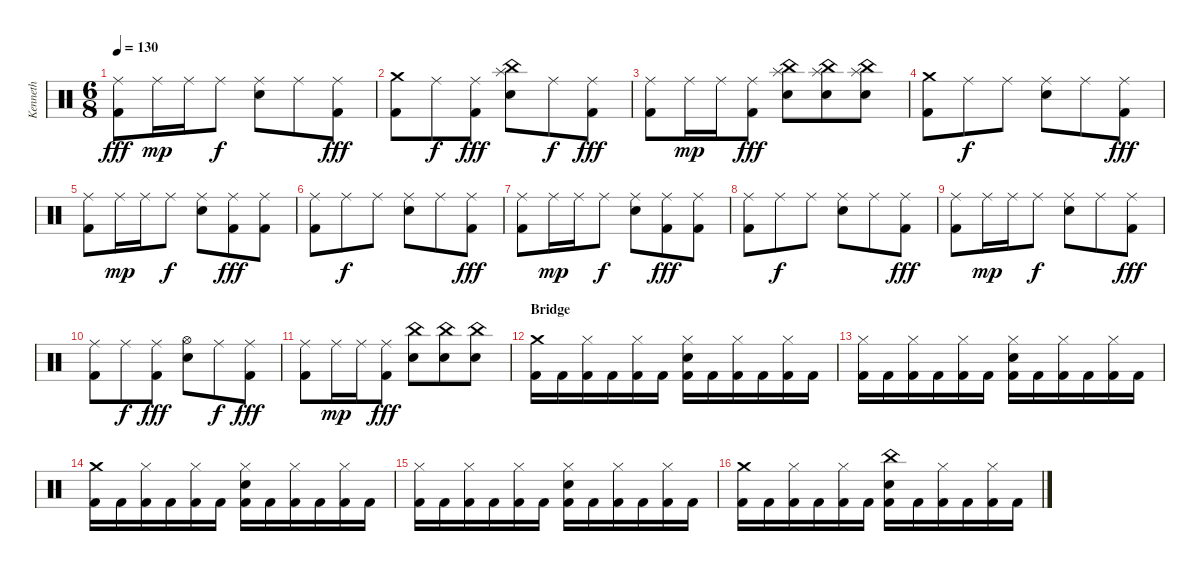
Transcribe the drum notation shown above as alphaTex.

\track ("Kenneth" "Kenneth") {instrument percussion}
\staff {score}
\articulation defaults
\ts (6 8)
\tempo 130
\clef neutral
\ks c
("Ride (middle)" "Kick (hit) 2").8{dy fff} "Ride (middle)".16{dy mp} "Ride (middle)".16 "Ride (middle)".8{dy f} ("Ride (middle)" "Electric Snare (hit)").8 "Ride (middle)".8 ("Ride (middle)" "Kick (hit) 2").8{dy fff} |
("Crash medium (hit)" "Kick (hit) 2").8 "Ride (middle)".8{dy f} ("Ride (middle)" "Kick (hit) 2").8{dy fff} ("China (hit)" "Splash (hit)" "Electric Snare (hit)").8 "Ride (middle)".8{dy f} ("Ride (middle)" "Kick (hit) 2").8{dy fff} |
("Ride (middle)" "Kick (hit) 2").8 "Ride (middle)".16{dy mp} "Ride (middle)".16 ("Ride (middle)" "Kick (hit) 2").8{dy fff} ("China (hit)" "Splash (hit)" "Electric Snare (hit)").8 ("China (hit)" "Splash (hit)" "Electric Snare (hit)").8 ("China (hit)" "Splash (hit)" "Electric Snare (hit)").8 |
("Crash medium (hit)" "Kick (hit) 2").8 "Ride (middle)".8{dy f} "Ride (middle)".8 ("Ride (middle)" "Electric Snare (hit)").8 "Ride (middle)".8 ("Ride (middle)" "Kick (hit) 2").8{dy fff} |
("Ride (middle)" "Kick (hit) 2").8 "Ride (middle)".16{dy mp} "Ride (middle)".16 "Ride (middle)".8{dy f} ("Ride (middle)" "Electric Snare (hit)").8 ("Ride (middle)" "Kick (hit) 2").8{dy fff} ("Ride (middle)" "Kick (hit) 2").8 |
("Ride (middle)" "Kick (hit) 2").8 "Ride (middle)".8{dy f} "Ride (middle)".8 ("Ride (middle)" "Electric Snare (hit)").8 "Ride (middle)".8 ("Ride (middle)" "Kick (hit) 2").8{dy fff} |
("Ride (middle)" "Kick (hit) 2").8 "Ride (middle)".16{dy mp} "Ride (middle)".16 "Ride (middle)".8{dy f} ("Ride (middle)" "Electric Snare (hit)").8 ("Ride (middle)" "Kick (hit) 2").8{dy fff} ("Ride (middle)" "Kick (hit) 2").8 |
("Ride (middle)" "Kick (hit) 2").8 "Ride (middle)".8{dy f} "Ride (middle)".8 ("Ride (middle)" "Electric Snare (hit)").8 "Ride (middle)".8 ("Ride (middle)" "Kick (hit) 2").8{dy fff} |
("Ride (middle)" "Kick (hit) 2").8 "Ride (middle)".16{dy mp} "Ride (middle)".16 "Ride (middle)".8{dy f} ("Ride (middle)" "Electric Snare (hit)").8 "Ride (middle)".8 ("Ride (middle)" "Kick (hit) 2").8{dy fff} |
("Ride (middle)" "Kick (hit) 2").8 "Ride (middle)".8{dy f} ("Ride (middle)" "Kick (hit) 2").8{dy fff} ("Hi-Hat (open)" "Electric Snare (hit)").8 "Ride (middle)".8{dy f} ("Ride (middle)" "Kick (hit) 2").8{dy fff} |
("Ride (middle)" "Kick (hit) 2").8 "Ride (middle)".16{dy mp} "Ride (middle)".16 ("Ride (middle)" "Kick (hit) 2").8{dy fff} ("China (hit)" "Electric Snare (hit)").8 ("China (hit)" "Electric Snare (hit)").8 ("China (hit)" "Electric Snare (hit)").8 |
\section ("" "Bridge")
("Crash medium (hit)" "Kick (hit) 2").16 "Kick (hit) 2".16 ("Hi-Hat (closed)" "Kick (hit) 2").16 "Kick (hit) 2".16 ("Hi-Hat (closed)" "Kick (hit) 2").16 "Kick (hit) 2".16 ("Hi-Hat (closed)" "Electric Snare (hit)" "Kick (hit) 2").16 "Kick (hit) 2".16 ("Hi-Hat (closed)" "Kick (hit) 2").16 "Kick (hit) 2".16 ("Hi-Hat (closed)" "Kick (hit) 2").16 "Kick (hit) 2".16 |
("Hi-Hat (closed)" "Kick (hit) 2").16 "Kick (hit) 2".16 ("Hi-Hat (closed)" "Kick (hit) 2").16 "Kick (hit) 2".16 ("Hi-Hat (closed)" "Kick (hit) 2").16 "Kick (hit) 2".16 ("Hi-Hat (closed)" "Electric Snare (hit)" "Kick (hit) 2").16 "Kick (hit) 2".16 ("Hi-Hat (closed)" "Kick (hit) 2").16 "Kick (hit) 2".16 ("Hi-Hat (closed)" "Kick (hit) 2").16 "Kick (hit) 2".16 |
("Crash medium (hit)" "Kick (hit) 2").16 "Kick (hit) 2".16 ("Hi-Hat (closed)" "Kick (hit) 2").16 "Kick (hit) 2".16 ("Hi-Hat (closed)" "Kick (hit) 2").16 "Kick (hit) 2".16 ("Hi-Hat (closed)" "Electric Snare (hit)" "Kick (hit) 2").16 "Kick (hit) 2".16 ("Hi-Hat (closed)" "Kick (hit) 2").16 "Kick (hit) 2".16 ("Hi-Hat (closed)" "Kick (hit) 2").16 "Kick (hit) 2".16 |
("Hi-Hat (closed)" "Kick (hit) 2").16 "Kick (hit) 2".16 ("Hi-Hat (closed)" "Kick (hit) 2").16 "Kick (hit) 2".16 ("Hi-Hat (closed)" "Kick (hit) 2").16 "Kick (hit) 2".16 ("Hi-Hat (closed)" "Electric Snare (hit)" "Kick (hit) 2").16 "Kick (hit) 2".16 ("Hi-Hat (closed)" "Kick (hit) 2").16 "Kick (hit) 2".16 ("Hi-Hat (closed)" "Kick (hit) 2").16 "Kick (hit) 2".16 |
("Crash medium (hit)" "Kick (hit) 2").16 "Kick (hit) 2".16 ("Hi-Hat (closed)" "Kick (hit) 2").16 "Kick (hit) 2".16 ("Hi-Hat (closed)" "Kick (hit) 2").16 "Kick (hit) 2".16 ("China (hit)" "Electric Snare (hit)" "Kick (hit) 2").16 "Kick (hit) 2".16 ("Hi-Hat (closed)" "Kick (hit) 2").16 "Kick (hit) 2".16 ("Hi-Hat (closed)" "Kick (hit) 2").16 "Kick (hit) 2".16
